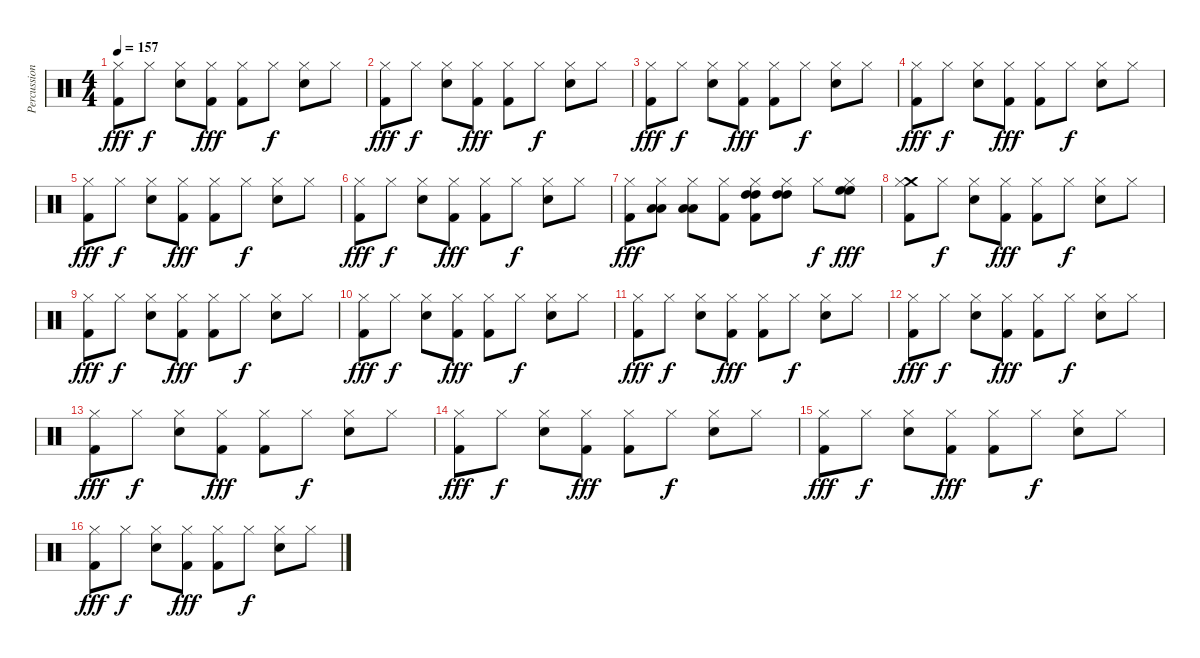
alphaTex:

\track ("Percussioni" "Percussion") {instrument percussion}
\staff {score}
\articulation defaults
\ts (4 4)
\tempo 157
\clef neutral
\ks c
("Hi-Hat (closed)" "Kick (hit) 2").8{dy fff} "Hi-Hat (closed)".8{dy f} ("Hi-Hat (closed)" "Snare (hit) 2").8 ("Hi-Hat (closed)" "Kick (hit) 2").8{dy fff} ("Hi-Hat (closed)" "Kick (hit) 2").8 "Hi-Hat (closed)".8{dy f} ("Hi-Hat (closed)" "Snare (hit) 2").8 "Hi-Hat (closed)".8 |
("Hi-Hat (closed)" "Kick (hit) 2").8{dy fff} "Hi-Hat (closed)".8{dy f} ("Hi-Hat (closed)" "Snare (hit) 2").8 ("Hi-Hat (closed)" "Kick (hit) 2").8{dy fff} ("Hi-Hat (closed)" "Kick (hit) 2").8 "Hi-Hat (closed)".8{dy f} ("Hi-Hat (closed)" "Snare (hit) 2").8 "Hi-Hat (closed)".8 |
("Hi-Hat (closed)" "Kick (hit) 2").8{dy fff} "Hi-Hat (closed)".8{dy f} ("Hi-Hat (closed)" "Snare (hit) 2").8 ("Hi-Hat (closed)" "Kick (hit) 2").8{dy fff} ("Hi-Hat (closed)" "Kick (hit) 2").8 "Hi-Hat (closed)".8{dy f} ("Hi-Hat (closed)" "Snare (hit) 2").8 "Hi-Hat (closed)".8 |
("Hi-Hat (closed)" "Kick (hit) 2").8{dy fff} "Hi-Hat (closed)".8{dy f} ("Hi-Hat (closed)" "Snare (hit) 2").8 ("Hi-Hat (closed)" "Kick (hit) 2").8{dy fff} ("Hi-Hat (closed)" "Kick (hit) 2").8 "Hi-Hat (closed)".8{dy f} ("Hi-Hat (closed)" "Snare (hit) 2").8 "Hi-Hat (closed)".8 |
("Hi-Hat (closed)" "Kick (hit) 2").8{dy fff} "Hi-Hat (closed)".8{dy f} ("Hi-Hat (closed)" "Snare (hit) 2").8 ("Hi-Hat (closed)" "Kick (hit) 2").8{dy fff} ("Hi-Hat (closed)" "Kick (hit) 2").8 "Hi-Hat (closed)".8{dy f} ("Hi-Hat (closed)" "Snare (hit) 2").8 "Hi-Hat (closed)".8 |
("Hi-Hat (closed)" "Kick (hit) 2").8{dy fff} "Hi-Hat (closed)".8{dy f} ("Hi-Hat (closed)" "Snare (hit) 2").8 ("Hi-Hat (closed)" "Kick (hit) 2").8{dy fff} ("Hi-Hat (closed)" "Kick (hit) 2").8 "Hi-Hat (closed)".8{dy f} ("Hi-Hat (closed)" "Snare (hit) 2").8 "Hi-Hat (closed)".8 |
("Hi-Hat (closed)" "Kick (hit) 2").8{dy fff} ("Low Tom (hit)" "Low Tom (hit)" "Hi-Hat (closed)").8 ("Low Tom (hit)" "Low Tom (hit)" "Hi-Hat (closed)").8 ("Hi-Hat (closed)" "Kick (hit) 2").8 ("High Tom (hit)" "High Tom (hit)" "Hi-Hat (closed)" "Kick (hit) 2").8 ("High Tom (hit)" "High Tom (hit)" "Hi-Hat (closed)").8 "Hi-Hat (closed)".8{dy f} ("High Floor Tom (hit)" "High Floor Tom (hit)" "Hi-Hat (closed)").8{dy fff} |
("Crash medium (hit)" "Hi-Hat (closed)" "Kick (hit) 2").8 "Hi-Hat (closed)".8{dy f} ("Hi-Hat (closed)" "Snare (hit) 2").8 ("Hi-Hat (closed)" "Kick (hit) 2").8{dy fff} ("Hi-Hat (closed)" "Kick (hit) 2").8 "Hi-Hat (closed)".8{dy f} ("Hi-Hat (closed)" "Snare (hit) 2").8 "Hi-Hat (closed)".8 |
("Hi-Hat (closed)" "Kick (hit) 2").8{dy fff} "Hi-Hat (closed)".8{dy f} ("Hi-Hat (closed)" "Snare (hit) 2").8 ("Hi-Hat (closed)" "Kick (hit) 2").8{dy fff} ("Hi-Hat (closed)" "Kick (hit) 2").8 "Hi-Hat (closed)".8{dy f} ("Hi-Hat (closed)" "Snare (hit) 2").8 "Hi-Hat (closed)".8 |
("Hi-Hat (closed)" "Kick (hit) 2").8{dy fff} "Hi-Hat (closed)".8{dy f} ("Hi-Hat (closed)" "Snare (hit) 2").8 ("Hi-Hat (closed)" "Kick (hit) 2").8{dy fff} ("Hi-Hat (closed)" "Kick (hit) 2").8 "Hi-Hat (closed)".8{dy f} ("Hi-Hat (closed)" "Snare (hit) 2").8 "Hi-Hat (closed)".8 |
("Hi-Hat (closed)" "Kick (hit) 2").8{dy fff} "Hi-Hat (closed)".8{dy f} ("Hi-Hat (closed)" "Snare (hit) 2").8 ("Hi-Hat (closed)" "Kick (hit) 2").8{dy fff} ("Hi-Hat (closed)" "Kick (hit) 2").8 "Hi-Hat (closed)".8{dy f} ("Hi-Hat (closed)" "Snare (hit) 2").8 "Hi-Hat (closed)".8 |
("Hi-Hat (closed)" "Kick (hit) 2").8{dy fff} "Hi-Hat (closed)".8{dy f} ("Hi-Hat (closed)" "Snare (hit) 2").8 ("Hi-Hat (closed)" "Kick (hit) 2").8{dy fff} ("Hi-Hat (closed)" "Kick (hit) 2").8 "Hi-Hat (closed)".8{dy f} ("Hi-Hat (closed)" "Snare (hit) 2").8 "Hi-Hat (closed)".8 |
("Hi-Hat (closed)" "Kick (hit) 2").8{dy fff} "Hi-Hat (closed)".8{dy f} ("Hi-Hat (closed)" "Snare (hit) 2").8 ("Hi-Hat (closed)" "Kick (hit) 2").8{dy fff} ("Hi-Hat (closed)" "Kick (hit) 2").8 "Hi-Hat (closed)".8{dy f} ("Hi-Hat (closed)" "Snare (hit) 2").8 "Hi-Hat (closed)".8 |
("Hi-Hat (closed)" "Kick (hit) 2").8{dy fff} "Hi-Hat (closed)".8{dy f} ("Hi-Hat (closed)" "Snare (hit) 2").8 ("Hi-Hat (closed)" "Kick (hit) 2").8{dy fff} ("Hi-Hat (closed)" "Kick (hit) 2").8 "Hi-Hat (closed)".8{dy f} ("Hi-Hat (closed)" "Snare (hit) 2").8 "Hi-Hat (closed)".8 |
("Hi-Hat (closed)" "Kick (hit) 2").8{dy fff} "Hi-Hat (closed)".8{dy f} ("Hi-Hat (closed)" "Snare (hit) 2").8 ("Hi-Hat (closed)" "Kick (hit) 2").8{dy fff} ("Hi-Hat (closed)" "Kick (hit) 2").8 "Hi-Hat (closed)".8{dy f} ("Hi-Hat (closed)" "Snare (hit) 2").8 "Hi-Hat (closed)".8 |
("Hi-Hat (closed)" "Kick (hit) 2").8{dy fff} "Hi-Hat (closed)".8{dy f} ("Hi-Hat (closed)" "Snare (hit) 2").8 ("Hi-Hat (closed)" "Kick (hit) 2").8{dy fff} ("Hi-Hat (closed)" "Kick (hit) 2").8 "Hi-Hat (closed)".8{dy f} ("Hi-Hat (closed)" "Snare (hit) 2").8 "Hi-Hat (closed)".8
